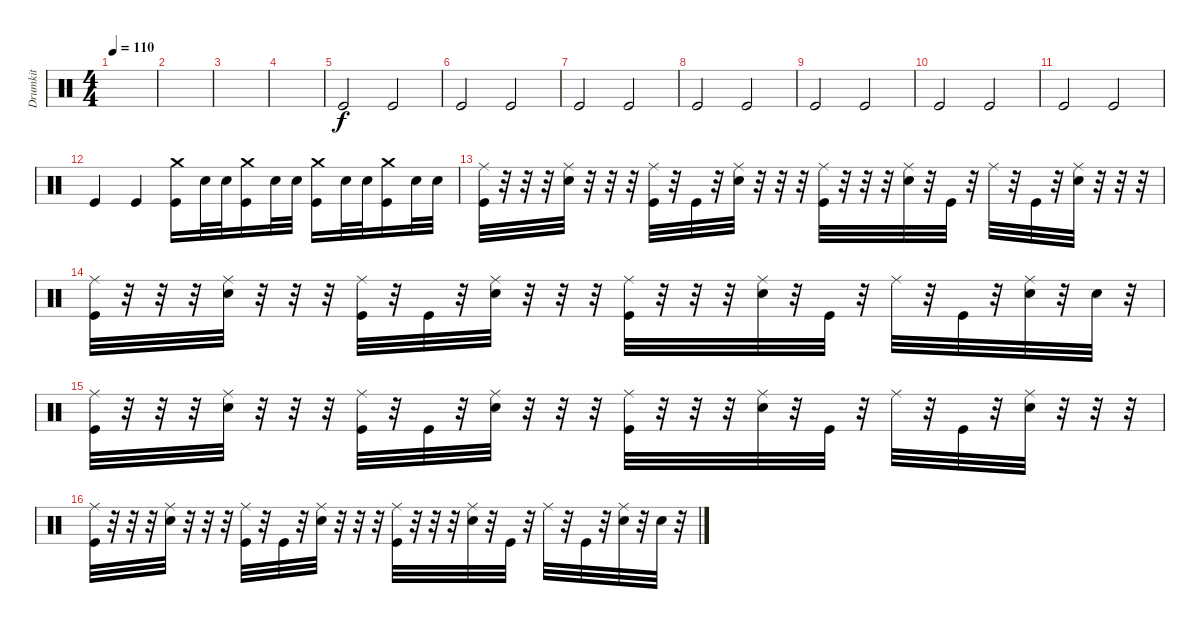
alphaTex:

\track ("Drumkit" "Drumkit") {instrument percussion}
\staff {score}
\articulation defaults
\ts (4 4)
\tempo 110
\clef neutral
\ks c
|
|
|
|
"Kick (hit)".2 "Kick (hit)".2 |
"Kick (hit)".2 "Kick (hit)".2 |
"Kick (hit)".2 "Kick (hit)".2 |
"Kick (hit)".2 "Kick (hit)".2 |
"Kick (hit)".2 "Kick (hit)".2 |
"Kick (hit)".2 "Kick (hit)".2 |
"Kick (hit)".2 "Kick (hit)".2 |
"Kick (hit)".4 "Kick (hit)".4 ("Crash medium (hit)" "Kick (hit)").16 "Snare (hit) 2".32 "Snare (hit) 2".32 ("Crash medium (hit)" "Kick (hit)").16 "Snare (hit) 2".32 "Snare (hit) 2".32 ("Crash medium (hit)" "Kick (hit)").16 "Snare (hit) 2".32 "Snare (hit) 2".32 ("Crash medium (hit)" "Kick (hit)").16 "Snare (hit) 2".32 "Snare (hit) 2".32 |
("Kick (hit)" "Ride (middle)").32 r.32 r.32 r.32 ("Snare (hit) 2" "Ride (middle)").32 r.32 r.32 r.32 ("Kick (hit)" "Ride (middle)").32 r.32 "Kick (hit)".32 r.32 ("Snare (hit) 2" "Ride (middle)").32 r.32 r.32 r.32 ("Kick (hit)" "Ride (middle)").32 r.32 r.32 r.32 ("Ride (middle)" "Snare (hit) 2").32 r.32 "Kick (hit)".32 r.32 "Ride (middle)".32 r.32 "Kick (hit)".32 r.32 ("Ride (middle)" "Snare (hit) 2").32 r.32 r.32 r.32 |
("Kick (hit)" "Ride (middle)").32 r.32 r.32 r.32 ("Snare (hit) 2" "Ride (middle)").32 r.32 r.32 r.32 ("Kick (hit)" "Ride (middle)").32 r.32 "Kick (hit)".32 r.32 ("Snare (hit) 2" "Ride (middle)").32 r.32 r.32 r.32 ("Kick (hit)" "Ride (middle)").32 r.32 r.32 r.32 ("Ride (middle)" "Snare (hit) 2").32 r.32 "Kick (hit)".32 r.32 "Ride (middle)".32 r.32 "Kick (hit)".32 r.32 ("Ride (middle)" "Snare (hit) 2").32 r.32 "Snare (hit) 2".32 r.32 |
("Kick (hit)" "Ride (middle)").32 r.32 r.32 r.32 ("Snare (hit) 2" "Ride (middle)").32 r.32 r.32 r.32 ("Kick (hit)" "Ride (middle)").32 r.32 "Kick (hit)".32 r.32 ("Snare (hit) 2" "Ride (middle)").32 r.32 r.32 r.32 ("Kick (hit)" "Ride (middle)").32 r.32 r.32 r.32 ("Ride (middle)" "Snare (hit) 2").32 r.32 "Kick (hit)".32 r.32 "Ride (middle)".32 r.32 "Kick (hit)".32 r.32 ("Ride (middle)" "Snare (hit) 2").32 r.32 r.32 r.32 |
("Kick (hit)" "Ride (middle)").32 r.32 r.32 r.32 ("Snare (hit) 2" "Ride (middle)").32 r.32 r.32 r.32 ("Kick (hit)" "Ride (middle)").32 r.32 "Kick (hit)".32 r.32 ("Snare (hit) 2" "Ride (middle)").32 r.32 r.32 r.32 ("Kick (hit)" "Ride (middle)").32 r.32 r.32 r.32 ("Ride (middle)" "Snare (hit) 2").32 r.32 "Kick (hit)".32 r.32 "Ride (middle)".32 r.32 "Kick (hit)".32 r.32 ("Ride (middle)" "Snare (hit) 2").32 r.32 "Snare (hit) 2".32 r.32
